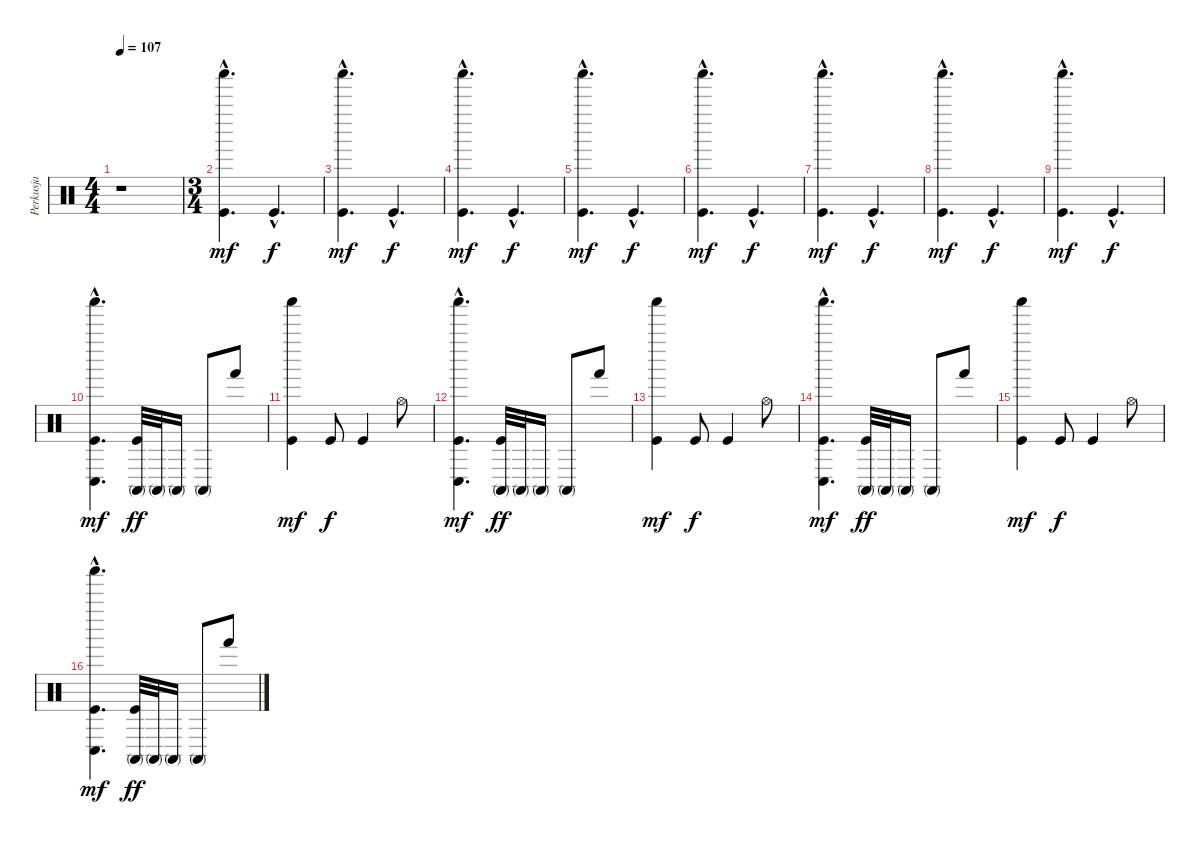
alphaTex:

\track ("Perkusja" "Perkusja") {instrument percussion}
\staff {score}
\articulation defaults
\ts (4 4)
\tempo 107
\clef neutral
\ks c
r.1{dy mf} |
\ts (3 4)
("Shaker (hit)"{hac} "Kick (hit)"{hac}).4{d} "Kick (hit)"{hac}.4{d dy f} |
("Shaker (hit)"{hac} "Kick (hit)"{hac}).4{d dy mf} "Kick (hit)"{hac}.4{d dy f} |
("Shaker (hit)"{hac} "Kick (hit)"{hac}).4{d dy mf} "Kick (hit)"{hac}.4{d dy f} |
("Shaker (hit)"{hac} "Kick (hit)"{hac}).4{d dy mf} "Kick (hit)"{hac}.4{d dy f} |
("Shaker (hit)"{hac} "Kick (hit)"{hac}).4{d dy mf} "Kick (hit)"{hac}.4{d dy f} |
("Shaker (hit)"{hac} "Kick (hit)"{hac}).4{d dy mf} "Kick (hit)"{hac}.4{d dy f} |
("Shaker (hit)"{hac} "Kick (hit)"{hac}).4{d dy mf} "Kick (hit)"{hac}.4{d dy f} |
("Shaker (hit)"{hac} "Kick (hit)"{hac}).4{d dy mf} "Kick (hit)"{hac}.4{d dy f} |
("Conga low (hit)"{hac} "Shaker (hit)"{hac} "Kick (hit)"{hac}).4{d dy mf} ("Conga high (mute)" "Kick (hit)").32{dy ff} "Conga high (mute)".32 "Conga high (mute)".16 "Conga high (mute)".8 "Hand (hit)".8 |
("Shaker (hit)" "Kick (hit)").4{dy mf} "Kick (hit)".8{dy f} "Kick (hit)".4 "Hi-Hat (open)".8 |
("Conga low (hit)"{hac} "Shaker (hit)"{hac} "Kick (hit)"{hac}).4{d dy mf} ("Conga high (mute)" "Kick (hit)").32{dy ff} "Conga high (mute)".32 "Conga high (mute)".16 "Conga high (mute)".8 "Hand (hit)".8 |
("Shaker (hit)" "Kick (hit)").4{dy mf} "Kick (hit)".8{dy f} "Kick (hit)".4 "Hi-Hat (open)".8 |
("Conga low (hit)"{hac} "Shaker (hit)"{hac} "Kick (hit)"{hac}).4{d dy mf} ("Conga high (mute)" "Kick (hit)").32{dy ff} "Conga high (mute)".32 "Conga high (mute)".16 "Conga high (mute)".8 "Hand (hit)".8 |
("Shaker (hit)" "Kick (hit)").4{dy mf} "Kick (hit)".8{dy f} "Kick (hit)".4 "Hi-Hat (open)".8 |
("Conga low (hit)"{hac} "Shaker (hit)"{hac} "Kick (hit)"{hac}).4{d dy mf} ("Conga high (mute)" "Kick (hit)").32{dy ff} "Conga high (mute)".32 "Conga high (mute)".16 "Conga high (mute)".8 "Hand (hit)".8
